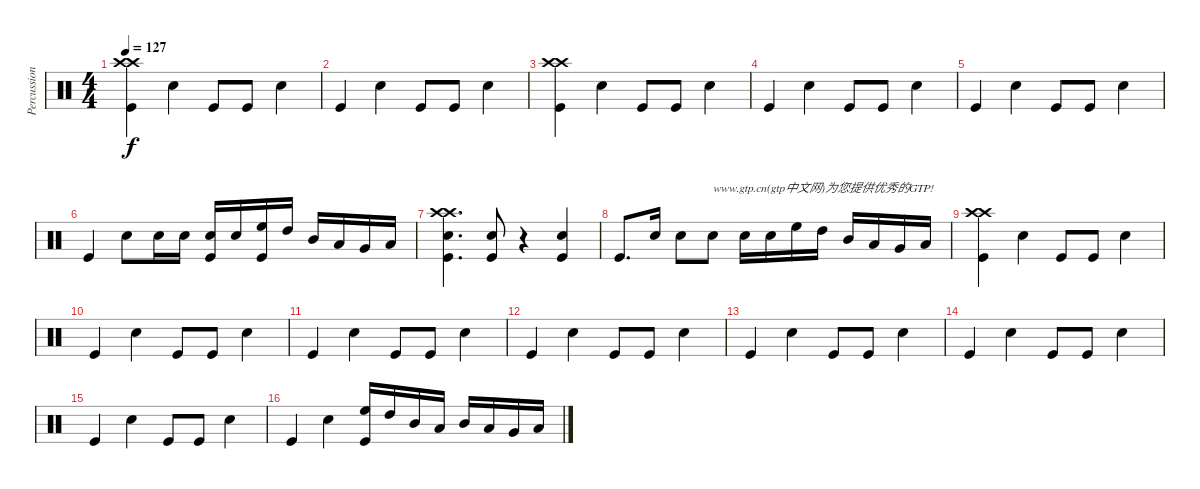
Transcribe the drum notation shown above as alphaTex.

\track ("Percussion" "Percussion") {instrument percussion}
\staff {score}
\articulation defaults
\ts (4 4)
\tempo 127
\clef neutral
\ks c
("Crash high (hit)" "Crash high (hit)" "Kick (hit)").4{dy f} "Snare (hit) 2".4 "Kick (hit)".8 "Kick (hit)".8 "Snare (hit) 2".4 |
"Kick (hit)".4 "Snare (hit) 2".4 "Kick (hit)".8 "Kick (hit)".8 "Snare (hit) 2".4 |
("Crash high (hit)" "Crash high (hit)" "Kick (hit)").4 "Snare (hit) 2".4 "Kick (hit)".8 "Kick (hit)".8 "Snare (hit) 2".4 |
"Kick (hit)".4 "Snare (hit) 2".4 "Kick (hit)".8 "Kick (hit)".8 "Snare (hit) 2".4 |
"Kick (hit)".4 "Snare (hit) 2".4 "Kick (hit)".8 "Kick (hit)".8 "Snare (hit) 2".4 |
"Kick (hit)".4 "Snare (hit) 2".8 "Snare (hit) 2".16 "Snare (hit) 2".16 ("Snare (hit) 2" "Kick (hit)").16 "Snare (hit) 2".16 ("High Floor Tom (hit)" "Kick (hit)").16 "High Tom (hit)".16 "Mid Tom (hit)".16 "Low Tom (hit)".16 "Very Low Tom (hit)".16 "Low Floor Tom (hit)".16 |
("Crash high (hit)" "Crash high (hit)" "Snare (hit) 2" "Kick (hit)").4{d} ("Snare (hit) 2" "Kick (hit)").8 r.4 ("Snare (hit) 2" "Kick (hit)").4 |
"Kick (hit)".8{d} "Snare (hit) 2".16 "Snare (hit) 2".8 "Snare (hit) 2".8{txt "www.gtp.cn(gtp中文网)为您提供优秀的GTP!"} "Snare (hit) 2".16 "Snare (hit) 2".16 "High Floor Tom (hit)".16 "High Tom (hit)".16 "Mid Tom (hit)".16 "Low Tom (hit)".16 "Very Low Tom (hit)".16 "Low Floor Tom (hit)".16 |
("Crash high (hit)" "Crash high (hit)" "Kick (hit)").4 "Snare (hit) 2".4 "Kick (hit)".8 "Kick (hit)".8 "Snare (hit) 2".4 |
"Kick (hit)".4 "Snare (hit) 2".4 "Kick (hit)".8 "Kick (hit)".8 "Snare (hit) 2".4 |
"Kick (hit)".4 "Snare (hit) 2".4 "Kick (hit)".8 "Kick (hit)".8 "Snare (hit) 2".4 |
"Kick (hit)".4 "Snare (hit) 2".4 "Kick (hit)".8 "Kick (hit)".8 "Snare (hit) 2".4 |
"Kick (hit)".4 "Snare (hit) 2".4 "Kick (hit)".8 "Kick (hit)".8 "Snare (hit) 2".4 |
"Kick (hit)".4 "Snare (hit) 2".4 "Kick (hit)".8 "Kick (hit)".8 "Snare (hit) 2".4 |
"Kick (hit)".4 "Snare (hit) 2".4 "Kick (hit)".8 "Kick (hit)".8 "Snare (hit) 2".4 |
"Kick (hit)".4 "Snare (hit) 2".4 ("High Floor Tom (hit)" "Kick (hit)").16 "High Tom (hit)".16 "Mid Tom (hit)".16 "Low Tom (hit)".16 "Mid Tom (hit)".16 "Low Tom (hit)".16 "Very Low Tom (hit)".16 "Low Floor Tom (hit)".16
